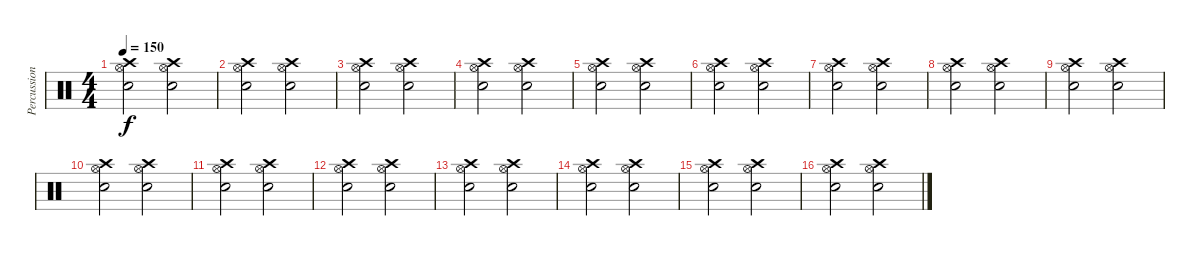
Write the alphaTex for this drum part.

\track ("Percussion" "Percussion") {instrument percussion}
\staff {score}
\articulation defaults
\ts (4 4)
\tempo 150
\clef neutral
\ks c
("Crash high (hit)" "Snare (hit) 2" "Hi-Hat (open)").2{dy f volume 16} ("Crash high (hit)" "Snare (hit) 2" "Hi-Hat (open)").2 |
("Crash high (hit)" "Snare (hit) 2" "Hi-Hat (open)").2 ("Crash high (hit)" "Snare (hit) 2" "Hi-Hat (open)").2 |
("Crash high (hit)" "Snare (hit) 2" "Hi-Hat (open)").2{volume 16} ("Crash high (hit)" "Snare (hit) 2" "Hi-Hat (open)").2 |
("Crash high (hit)" "Snare (hit) 2" "Hi-Hat (open)").2 ("Crash high (hit)" "Snare (hit) 2" "Hi-Hat (open)").2 |
("Crash high (hit)" "Snare (hit) 2" "Hi-Hat (open)").2{volume 16} ("Crash high (hit)" "Snare (hit) 2" "Hi-Hat (open)").2 |
("Crash high (hit)" "Snare (hit) 2" "Hi-Hat (open)").2 ("Crash high (hit)" "Snare (hit) 2" "Hi-Hat (open)").2 |
("Crash high (hit)" "Snare (hit) 2" "Hi-Hat (open)").2{volume 16} ("Crash high (hit)" "Snare (hit) 2" "Hi-Hat (open)").2 |
("Crash high (hit)" "Snare (hit) 2" "Hi-Hat (open)").2 ("Crash high (hit)" "Snare (hit) 2" "Hi-Hat (open)").2 |
("Crash high (hit)" "Snare (hit) 2" "Hi-Hat (open)").2{volume 16} ("Crash high (hit)" "Snare (hit) 2" "Hi-Hat (open)").2 |
("Crash high (hit)" "Snare (hit) 2" "Hi-Hat (open)").2 ("Crash high (hit)" "Snare (hit) 2" "Hi-Hat (open)").2 |
("Crash high (hit)" "Snare (hit) 2" "Hi-Hat (open)").2{volume 16} ("Crash high (hit)" "Snare (hit) 2" "Hi-Hat (open)").2 |
("Crash high (hit)" "Snare (hit) 2" "Hi-Hat (open)").2 ("Crash high (hit)" "Snare (hit) 2" "Hi-Hat (open)").2 |
("Crash high (hit)" "Snare (hit) 2" "Hi-Hat (open)").2 ("Crash high (hit)" "Snare (hit) 2" "Hi-Hat (open)").2 |
("Crash high (hit)" "Snare (hit) 2" "Hi-Hat (open)").2 ("Crash high (hit)" "Snare (hit) 2" "Hi-Hat (open)").2 |
("Crash high (hit)" "Snare (hit) 2" "Hi-Hat (open)").2 ("Crash high (hit)" "Snare (hit) 2" "Hi-Hat (open)").2 |
("Crash high (hit)" "Snare (hit) 2" "Hi-Hat (open)").2 ("Crash high (hit)" "Snare (hit) 2" "Hi-Hat (open)").2
